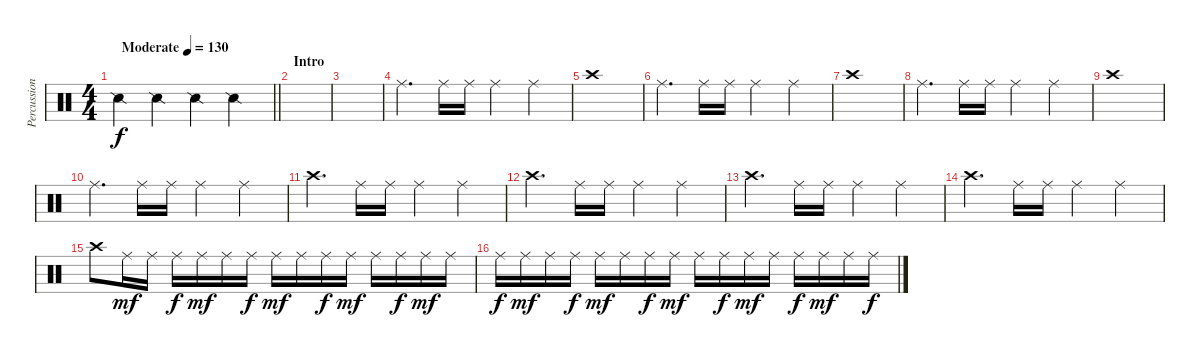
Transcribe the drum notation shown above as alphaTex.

\track ("Percussion" "Percussion") {instrument percussion}
\staff {score}
\articulation defaults
\ts (4 4)
\tempo (130 "Moderate")
\clef neutral
\barLineRight lightlight
\ks c "Snare (side stick) 2".4{dy f} "Snare (side stick) 2".4 "Snare (side stick) 2".4 "Snare (side stick) 2".4
|
\section ("" "Intro")
|
|
"Ride (middle)".4{d} "Ride (middle)".16 "Ride (middle)".16 "Ride (middle)".4 "Ride (middle)".4 |
"Crash high (hit)".1 |
"Ride (middle)".4{d} "Ride (middle)".16 "Ride (middle)".16 "Ride (middle)".4 "Ride (middle)".4 |
"Crash high (hit)".1 |
"Ride (middle)".4{d} "Ride (middle)".16 "Ride (middle)".16 "Ride (middle)".4 "Ride (middle)".4 |
"Crash high (hit)".1 |
"Ride (middle)".4{d} "Ride (middle)".16 "Ride (middle)".16 "Ride (middle)".4 "Ride (middle)".4 |
"Crash high (hit)".4{d} "Ride (middle)".16 "Ride (middle)".16 "Ride (middle)".4 "Ride (middle)".4 |
"Crash high (hit)".4{d} "Ride (middle)".16 "Ride (middle)".16 "Ride (middle)".4 "Ride (middle)".4 |
"Crash high (hit)".4{d} "Ride (middle)".16 "Ride (middle)".16 "Ride (middle)".4 "Ride (middle)".4 |
"Crash high (hit)".4{d} "Ride (middle)".16 "Ride (middle)".16 "Ride (middle)".4 "Ride (middle)".4 |
"Crash high (hit)".8 "Ride (middle)".16{dy mf} "Ride (middle)".16 "Ride (middle)".16{dy f} "Ride (middle)".16{dy mf} "Ride (middle)".16 "Ride (middle)".16{dy f} "Ride (middle)".16{dy mf} "Ride (middle)".16 "Ride (middle)".16{dy f} "Ride (middle)".16{dy mf} "Ride (middle)".16 "Ride (middle)".16{dy f} "Ride (middle)".16{dy mf} "Ride (middle)".16 |
"Ride (middle)".16{dy f} "Ride (middle)".16{dy mf} "Ride (middle)".16 "Ride (middle)".16{dy f} "Ride (middle)".16{dy mf} "Ride (middle)".16 "Ride (middle)".16{dy f} "Ride (middle)".16{dy mf} "Ride (middle)".16 "Ride (middle)".16{dy f} "Ride (middle)".16{dy mf} "Ride (middle)".16 "Ride (middle)".16{dy f} "Ride (middle)".16{dy mf} "Ride (middle)".16 "Ride (middle)".16{dy f}
